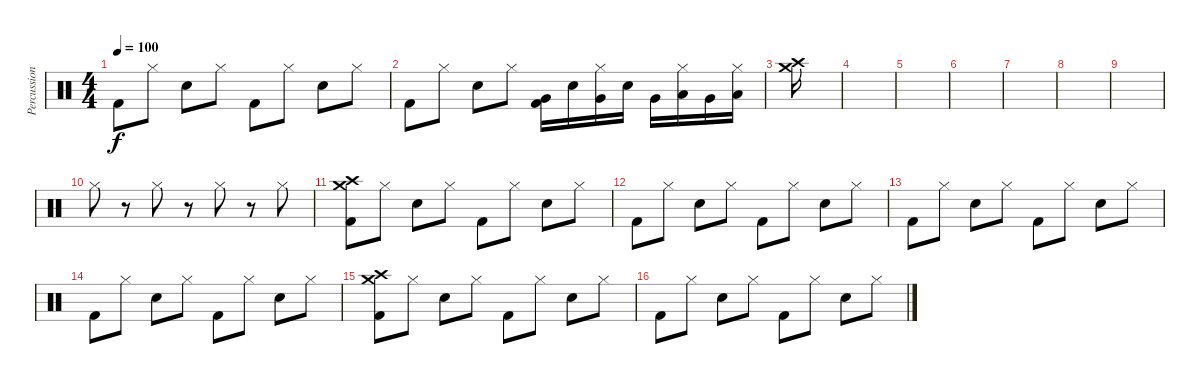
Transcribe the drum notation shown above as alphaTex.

\track ("Percussion" "Percussion") {instrument percussion}
\staff {score}
\articulation defaults
\ts (4 4)
\tempo 100
\clef neutral
\ks c "Kick (hit) 2".8{dy f} "Hi-Hat (closed)".8 "Electric Snare (hit)".8 "Hi-Hat (closed)".8 "Kick (hit) 2".8 "Hi-Hat (closed)".8 "Electric Snare (hit)".8 "Hi-Hat (closed)".8
|
"Kick (hit) 2".8 "Hi-Hat (closed)".8 "Electric Snare (hit)".8 "Hi-Hat (closed)".8 ("Kick (hit) 2" "Very Low Tom (hit)").16 "Electric Snare (hit)".16 ("Hi-Hat (closed)" "Very Low Tom (hit)").16 "Electric Snare (hit)".16 "Very Low Tom (hit)".16 ("Hi-Hat (closed)" "Low Floor Tom (hit)").16 "Very Low Tom (hit)".16 ("Hi-Hat (closed)" "Low Floor Tom (hit)").16 |
("Crash high (hit)" "Crash medium (hit)").16 |
|
|
|
|
|
|
"Hi-Hat (closed)".8 r.8 "Hi-Hat (closed)".8 r.8 "Hi-Hat (closed)".8 r.8 "Hi-Hat (closed)".8 |
("Kick (hit) 2" "Crash high (hit)" "Crash medium (hit)").8 "Hi-Hat (closed)".8 "Electric Snare (hit)".8 "Hi-Hat (closed)".8 "Kick (hit) 2".8 "Hi-Hat (closed)".8 "Electric Snare (hit)".8 "Hi-Hat (closed)".8 |
"Kick (hit) 2".8 "Hi-Hat (closed)".8 "Electric Snare (hit)".8 "Hi-Hat (closed)".8 "Kick (hit) 2".8 "Hi-Hat (closed)".8 "Electric Snare (hit)".8 "Hi-Hat (closed)".8 |
"Kick (hit) 2".8 "Hi-Hat (closed)".8 "Electric Snare (hit)".8 "Hi-Hat (closed)".8 "Kick (hit) 2".8 "Hi-Hat (closed)".8 "Electric Snare (hit)".8 "Hi-Hat (closed)".8 |
"Kick (hit) 2".8 "Hi-Hat (closed)".8 "Electric Snare (hit)".8 "Hi-Hat (closed)".8 "Kick (hit) 2".8 "Hi-Hat (closed)".8 "Electric Snare (hit)".8 "Hi-Hat (closed)".8 |
("Kick (hit) 2" "Crash high (hit)" "Crash medium (hit)").8 "Hi-Hat (closed)".8 "Electric Snare (hit)".8 "Hi-Hat (closed)".8 "Kick (hit) 2".8 "Hi-Hat (closed)".8 "Electric Snare (hit)".8 "Hi-Hat (closed)".8 |
"Kick (hit) 2".8 "Hi-Hat (closed)".8 "Electric Snare (hit)".8 "Hi-Hat (closed)".8 "Kick (hit) 2".8 "Hi-Hat (closed)".8 "Electric Snare (hit)".8 "Hi-Hat (closed)".8
